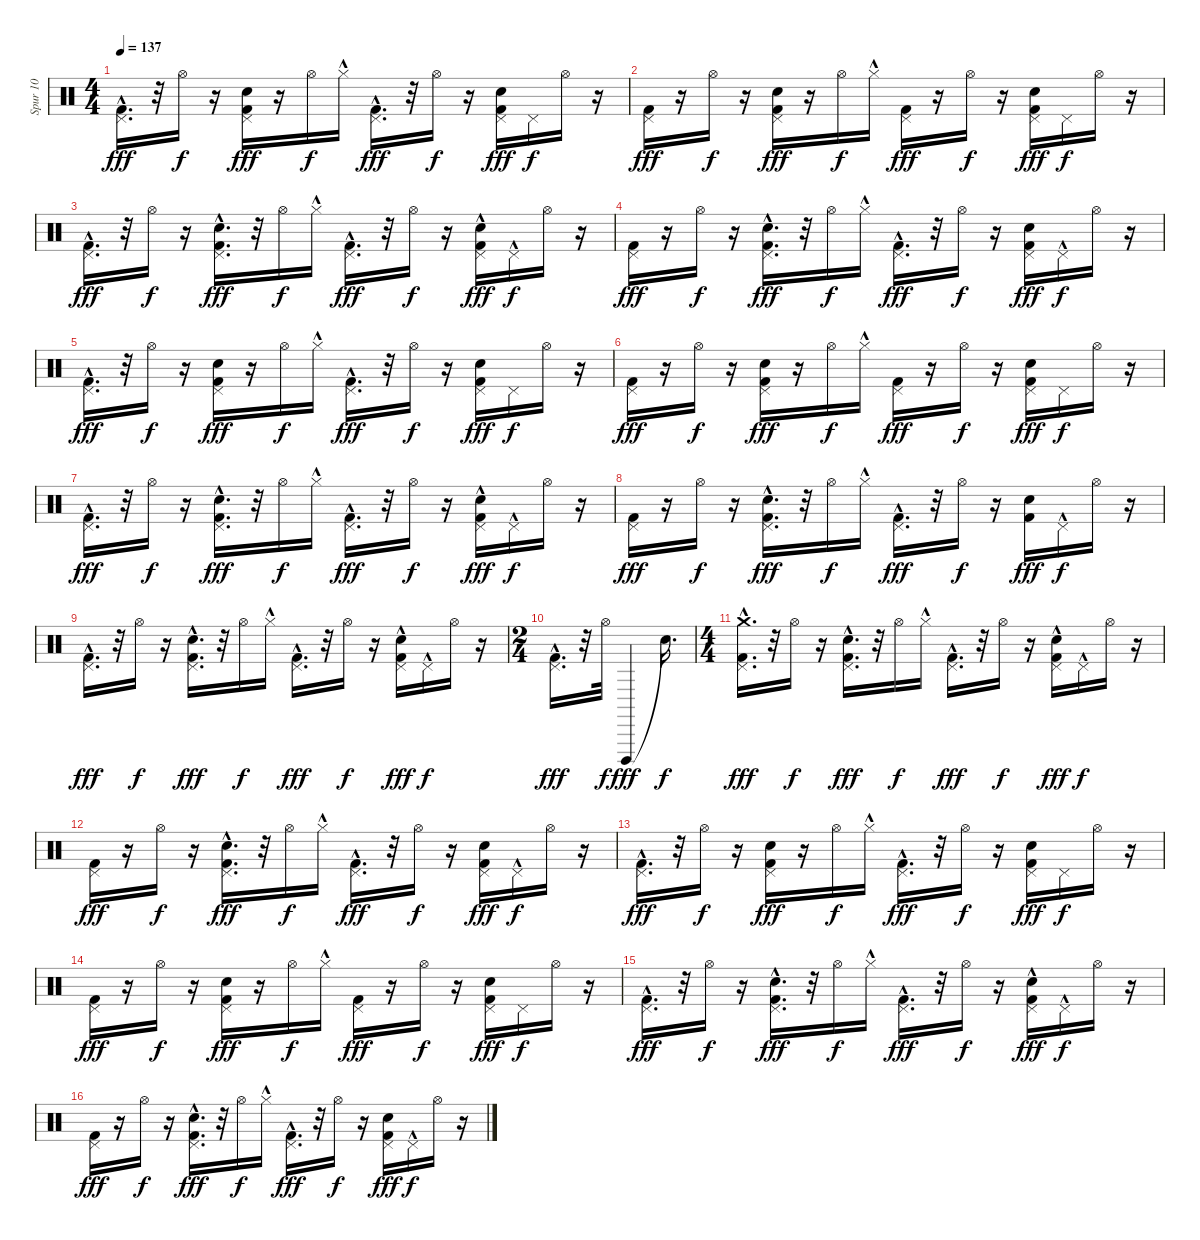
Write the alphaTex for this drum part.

\track ("Spur 10" "Spur 10") {instrument percussion}
\staff {score}
\articulation defaults
\ts (4 4)
\tempo 137
\clef neutral
\ks c
("Pedal Hi-Hat (hit)" "Kick (hit) 2"{hac}).16{d dy fff} r.32 "Hi-Hat (open)".16{dy f} r.16 ("Snare (hit) 2" "Pedal Hi-Hat (hit)" "Kick (hit) 2").16{dy fff} r.16 "Hi-Hat (open)".16{dy f} "Hi-Hat (closed)"{hac}.16 ("Pedal Hi-Hat (hit)" "Kick (hit) 2"{hac}).16{d dy fff} r.32 "Hi-Hat (open)".16{dy f} r.16 ("Snare (hit) 2" "Pedal Hi-Hat (hit)" "Kick (hit) 2").16{dy fff} "Pedal Hi-Hat (hit)".16{dy f} "Hi-Hat (open)".16 r.16 |
("Pedal Hi-Hat (hit)" "Kick (hit) 2").16{dy fff} r.16 "Hi-Hat (open)".16{dy f} r.16 ("Snare (hit) 2" "Pedal Hi-Hat (hit)" "Kick (hit) 2").16{dy fff} r.16 "Hi-Hat (open)".16{dy f} "Hi-Hat (closed)"{hac}.16 ("Pedal Hi-Hat (hit)" "Kick (hit) 2").16{dy fff} r.16 "Hi-Hat (open)".16{dy f} r.16 ("Snare (hit) 2" "Pedal Hi-Hat (hit)" "Kick (hit) 2").16{dy fff} "Pedal Hi-Hat (hit)".16{dy f} "Hi-Hat (open)".16 r.16 |
("Pedal Hi-Hat (hit)" "Kick (hit) 2"{hac}).16{d dy fff} r.32 "Hi-Hat (open)".16{dy f} r.16 ("Snare (hit) 2" "Pedal Hi-Hat (hit)" "Kick (hit) 2"{hac}).16{d dy fff} r.32 "Hi-Hat (open)".16{dy f} "Hi-Hat (closed)"{hac}.16 ("Pedal Hi-Hat (hit)"{hac} "Kick (hit) 2"{hac}).16{d dy fff} r.32 "Hi-Hat (open)".16{dy f} r.16 ("Snare (hit) 2" "Pedal Hi-Hat (hit)" "Kick (hit) 2"{hac}).16{dy fff} "Pedal Hi-Hat (hit)"{hac}.16{dy f} "Hi-Hat (open)".16 r.16 |
("Pedal Hi-Hat (hit)" "Kick (hit) 2").16{dy fff} r.16 "Hi-Hat (open)".16{dy f} r.16 ("Snare (hit) 2" "Pedal Hi-Hat (hit)" "Kick (hit) 2"{hac}).16{d dy fff} r.32 "Hi-Hat (open)".16{dy f} "Hi-Hat (closed)"{hac}.16 ("Pedal Hi-Hat (hit)" "Kick (hit) 2"{hac}).16{d dy fff} r.32 "Hi-Hat (open)".16{dy f} r.16 ("Snare (hit) 2" "Pedal Hi-Hat (hit)" "Kick (hit) 2").16{dy fff} "Pedal Hi-Hat (hit)"{hac}.16{dy f} "Hi-Hat (open)".16 r.16 |
("Pedal Hi-Hat (hit)" "Kick (hit) 2"{hac}).16{d dy fff} r.32 "Hi-Hat (open)".16{dy f} r.16 ("Snare (hit) 2" "Pedal Hi-Hat (hit)" "Kick (hit) 2").16{dy fff} r.16 "Hi-Hat (open)".16{dy f} "Hi-Hat (closed)"{hac}.16 ("Pedal Hi-Hat (hit)" "Kick (hit) 2"{hac}).16{d dy fff} r.32 "Hi-Hat (open)".16{dy f} r.16 ("Snare (hit) 2" "Pedal Hi-Hat (hit)" "Kick (hit) 2").16{dy fff} "Pedal Hi-Hat (hit)".16{dy f} "Hi-Hat (open)".16 r.16 |
("Pedal Hi-Hat (hit)" "Kick (hit) 2").16{dy fff} r.16 "Hi-Hat (open)".16{dy f} r.16 ("Snare (hit) 2" "Pedal Hi-Hat (hit)" "Kick (hit) 2").16{dy fff} r.16 "Hi-Hat (open)".16{dy f} "Hi-Hat (closed)"{hac}.16 ("Pedal Hi-Hat (hit)" "Kick (hit) 2").16{dy fff} r.16 "Hi-Hat (open)".16{dy f} r.16 ("Snare (hit) 2" "Pedal Hi-Hat (hit)" "Kick (hit) 2").16{dy fff} "Pedal Hi-Hat (hit)".16{dy f} "Hi-Hat (open)".16 r.16 |
("Pedal Hi-Hat (hit)" "Kick (hit) 2"{hac}).16{d dy fff} r.32 "Hi-Hat (open)".16{dy f} r.16 ("Snare (hit) 2" "Pedal Hi-Hat (hit)" "Kick (hit) 2"{hac}).16{d dy fff} r.32 "Hi-Hat (open)".16{dy f} "Hi-Hat (closed)"{hac}.16 ("Pedal Hi-Hat (hit)"{hac} "Kick (hit) 2"{hac}).16{d dy fff} r.32 "Hi-Hat (open)".16{dy f} r.16 ("Snare (hit) 2" "Pedal Hi-Hat (hit)" "Kick (hit) 2"{hac}).16{dy fff} "Pedal Hi-Hat (hit)"{hac}.16{dy f} "Hi-Hat (open)".16 r.16 |
("Pedal Hi-Hat (hit)" "Kick (hit) 2").16{dy fff} r.16 "Hi-Hat (open)".16{dy f} r.16 ("Snare (hit) 2" "Pedal Hi-Hat (hit)" "Kick (hit) 2"{hac}).16{d dy fff} r.32 "Hi-Hat (open)".16{dy f} "Hi-Hat (closed)"{hac}.16 ("Pedal Hi-Hat (hit)" "Kick (hit) 2"{hac}).16{d dy fff} r.32 "Hi-Hat (open)".16{dy f} r.16 ("Snare (hit) 2" "Kick (hit) 2").16{dy fff} "Pedal Hi-Hat (hit)"{hac}.16{dy f} "Hi-Hat (open)".16 r.16 |
("Pedal Hi-Hat (hit)" "Kick (hit) 2"{hac}).16{d dy fff} r.32 "Hi-Hat (open)".16{dy f} r.16 ("Snare (hit) 2" "Pedal Hi-Hat (hit)" "Kick (hit) 2"{hac}).16{d dy fff} r.32 "Hi-Hat (open)".16{dy f} "Hi-Hat (closed)"{hac}.16 ("Pedal Hi-Hat (hit)"{hac} "Kick (hit) 2"{hac}).16{d dy fff} r.32 "Hi-Hat (open)".16{dy f} r.16 ("Snare (hit) 2" "Pedal Hi-Hat (hit)" "Kick (hit) 2"{hac}).16{dy fff} "Pedal Hi-Hat (hit)"{hac}.16{dy f} "Hi-Hat (open)".16 r.16 |
\ts (2 4)
("Pedal Hi-Hat (hit)" "Kick (hit) 2"{hac}).16{d dy fff} r.32 "Hi-Hat (open)".32{dy f} "Cuica (open)".4{dy fff} "Snare (hit)"{t}.16{d dy f} |
\ts (4 4)
("Crash medium (hit)" "Pedal Hi-Hat (hit)" "Kick (hit) 2"{hac}).16{d dy fff} r.32 "Hi-Hat (open)".16{dy f} r.16 ("Snare (hit) 2" "Pedal Hi-Hat (hit)" "Kick (hit) 2"{hac}).16{d dy fff} r.32 "Hi-Hat (open)".16{dy f} "Hi-Hat (closed)"{hac}.16 ("Pedal Hi-Hat (hit)"{hac} "Kick (hit) 2"{hac}).16{d dy fff} r.32 "Hi-Hat (open)".16{dy f} r.16 ("Snare (hit) 2" "Pedal Hi-Hat (hit)" "Kick (hit) 2"{hac}).16{dy fff} "Pedal Hi-Hat (hit)"{hac}.16{dy f} "Hi-Hat (open)".16 r.16 |
("Pedal Hi-Hat (hit)" "Kick (hit) 2").16{dy fff} r.16 "Hi-Hat (open)".16{dy f} r.16 ("Snare (hit) 2" "Pedal Hi-Hat (hit)" "Kick (hit) 2"{hac}).16{d dy fff} r.32 "Hi-Hat (open)".16{dy f} "Hi-Hat (closed)"{hac}.16 ("Pedal Hi-Hat (hit)" "Kick (hit) 2"{hac}).16{d dy fff} r.32 "Hi-Hat (open)".16{dy f} r.16 ("Snare (hit) 2" "Pedal Hi-Hat (hit)" "Kick (hit) 2").16{dy fff} "Pedal Hi-Hat (hit)"{hac}.16{dy f} "Hi-Hat (open)".16 r.16 |
("Pedal Hi-Hat (hit)" "Kick (hit) 2"{hac}).16{d dy fff} r.32 "Hi-Hat (open)".16{dy f} r.16 ("Snare (hit) 2" "Pedal Hi-Hat (hit)" "Kick (hit) 2").16{dy fff} r.16 "Hi-Hat (open)".16{dy f} "Hi-Hat (closed)"{hac}.16 ("Pedal Hi-Hat (hit)" "Kick (hit) 2"{hac}).16{d dy fff} r.32 "Hi-Hat (open)".16{dy f} r.16 ("Snare (hit) 2" "Pedal Hi-Hat (hit)" "Kick (hit) 2").16{dy fff} "Pedal Hi-Hat (hit)".16{dy f} "Hi-Hat (open)".16 r.16 |
("Pedal Hi-Hat (hit)" "Kick (hit) 2").16{dy fff} r.16 "Hi-Hat (open)".16{dy f} r.16 ("Snare (hit) 2" "Pedal Hi-Hat (hit)" "Kick (hit) 2").16{dy fff} r.16 "Hi-Hat (open)".16{dy f} "Hi-Hat (closed)"{hac}.16 ("Pedal Hi-Hat (hit)" "Kick (hit) 2").16{dy fff} r.16 "Hi-Hat (open)".16{dy f} r.16 ("Snare (hit) 2" "Pedal Hi-Hat (hit)" "Kick (hit) 2").16{dy fff} "Pedal Hi-Hat (hit)".16{dy f} "Hi-Hat (open)".16 r.16 |
("Pedal Hi-Hat (hit)" "Kick (hit) 2"{hac}).16{d dy fff} r.32 "Hi-Hat (open)".16{dy f} r.16 ("Snare (hit) 2" "Pedal Hi-Hat (hit)" "Kick (hit) 2"{hac}).16{d dy fff} r.32 "Hi-Hat (open)".16{dy f} "Hi-Hat (closed)"{hac}.16 ("Pedal Hi-Hat (hit)"{hac} "Kick (hit) 2"{hac}).16{d dy fff} r.32 "Hi-Hat (open)".16{dy f} r.16 ("Snare (hit) 2" "Pedal Hi-Hat (hit)" "Kick (hit) 2"{hac}).16{dy fff} "Pedal Hi-Hat (hit)"{hac}.16{dy f} "Hi-Hat (open)".16 r.16 |
("Pedal Hi-Hat (hit)" "Kick (hit) 2").16{dy fff} r.16 "Hi-Hat (open)".16{dy f} r.16 ("Snare (hit) 2" "Pedal Hi-Hat (hit)" "Kick (hit) 2"{hac}).16{d dy fff} r.32 "Hi-Hat (open)".16{dy f} "Hi-Hat (closed)"{hac}.16 ("Pedal Hi-Hat (hit)" "Kick (hit) 2"{hac}).16{d dy fff} r.32 "Hi-Hat (open)".16{dy f} r.16 ("Snare (hit) 2" "Pedal Hi-Hat (hit)" "Kick (hit) 2").16{dy fff} "Pedal Hi-Hat (hit)"{hac}.16{dy f} "Hi-Hat (open)".16 r.16
